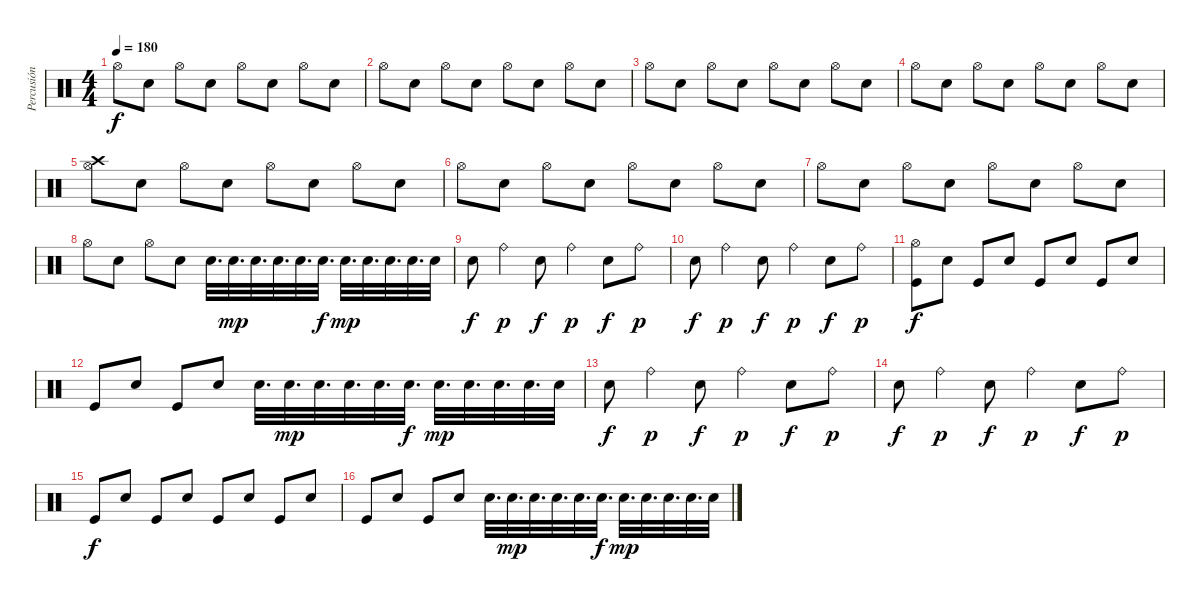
\track ("Percusión" "Percusión") {instrument percussion}
\staff {score}
\articulation defaults
\ts (4 4)
\tempo 180
\clef neutral
\ks c "Hi-Hat (open)".8{dy f} "Snare (hit) 2".8 "Hi-Hat (open)".8 "Snare (hit) 2".8 "Hi-Hat (open)".8 "Snare (hit) 2".8 "Hi-Hat (open)".8 "Snare (hit) 2".8
|
"Hi-Hat (open)".8 "Snare (hit) 2".8 "Hi-Hat (open)".8 "Snare (hit) 2".8 "Hi-Hat (open)".8 "Snare (hit) 2".8 "Hi-Hat (open)".8 "Snare (hit) 2".8 |
"Hi-Hat (open)".8 "Snare (hit) 2".8 "Hi-Hat (open)".8 "Snare (hit) 2".8 "Hi-Hat (open)".8 "Snare (hit) 2".8 "Hi-Hat (open)".8 "Snare (hit) 2".8 |
"Hi-Hat (open)".8 "Snare (hit) 2".8 "Hi-Hat (open)".8 "Snare (hit) 2".8 "Hi-Hat (open)".8 "Snare (hit) 2".8 "Hi-Hat (open)".8 "Snare (hit) 2".8 |
("Hi-Hat (open)" "Crash high (hit)").8 "Snare (hit) 2".8 "Hi-Hat (open)".8 "Snare (hit) 2".8 "Hi-Hat (open)".8 "Snare (hit) 2".8 "Hi-Hat (open)".8 "Snare (hit) 2".8 |
"Hi-Hat (open)".8 "Snare (hit) 2".8 "Hi-Hat (open)".8 "Snare (hit) 2".8 "Hi-Hat (open)".8 "Snare (hit) 2".8 "Hi-Hat (open)".8 "Snare (hit) 2".8 |
"Hi-Hat (open)".8 "Snare (hit) 2".8 "Hi-Hat (open)".8 "Snare (hit) 2".8 "Hi-Hat (open)".8 "Snare (hit) 2".8 "Hi-Hat (open)".8 "Snare (hit) 2".8 |
"Hi-Hat (open)".8 "Snare (hit) 2".8 "Hi-Hat (open)".8 "Snare (hit) 2".8 "Snare (hit) 2".32{d} "Snare (hit) 2".32{d dy mp} "Snare (hit) 2".32{d} "Snare (hit) 2".32{d} "Snare (hit) 2".32{d} "Snare (hit) 2".32{d dy f} "Snare (hit) 2".32{d dy mp} "Snare (hit) 2".32{d} "Snare (hit) 2".32{d} "Snare (hit) 2".32{d} "Snare (hit) 2".32 |
"Snare (hit) 2".8{dy f} "Ride (bell)".4{dy p} "Snare (hit) 2".8{dy f} "Ride (bell)".4{dy p} "Snare (hit) 2".8{dy f} "Ride (bell)".8{dy p} |
"Snare (hit) 2".8{dy f} "Ride (bell)".4{dy p} "Snare (hit) 2".8{dy f} "Ride (bell)".4{dy p} "Snare (hit) 2".8{dy f} "Ride (bell)".8{dy p} |
("Kick (hit)" "Hi-Hat (open)").8{dy f} "Snare (hit) 2".8 "Kick (hit)".8 "Snare (hit) 2".8 "Kick (hit)".8 "Snare (hit) 2".8 "Kick (hit)".8 "Snare (hit) 2".8 |
"Kick (hit)".8 "Snare (hit) 2".8 "Kick (hit)".8 "Snare (hit) 2".8 "Snare (hit) 2".32{d} "Snare (hit) 2".32{d dy mp} "Snare (hit) 2".32{d} "Snare (hit) 2".32{d} "Snare (hit) 2".32{d} "Snare (hit) 2".32{d dy f} "Snare (hit) 2".32{d dy mp} "Snare (hit) 2".32{d} "Snare (hit) 2".32{d} "Snare (hit) 2".32{d} "Snare (hit) 2".32 |
"Snare (hit) 2".8{dy f} "Ride (bell)".4{dy p} "Snare (hit) 2".8{dy f} "Ride (bell)".4{dy p} "Snare (hit) 2".8{dy f} "Ride (bell)".8{dy p} |
"Snare (hit) 2".8{dy f} "Ride (bell)".4{dy p} "Snare (hit) 2".8{dy f} "Ride (bell)".4{dy p} "Snare (hit) 2".8{dy f} "Ride (bell)".8{dy p} |
"Kick (hit)".8{dy f} "Snare (hit) 2".8 "Kick (hit)".8 "Snare (hit) 2".8 "Kick (hit)".8 "Snare (hit) 2".8 "Kick (hit)".8 "Snare (hit) 2".8 |
"Kick (hit)".8 "Snare (hit) 2".8 "Kick (hit)".8 "Snare (hit) 2".8 "Snare (hit) 2".32{d} "Snare (hit) 2".32{d dy mp} "Snare (hit) 2".32{d} "Snare (hit) 2".32{d} "Snare (hit) 2".32{d} "Snare (hit) 2".32{d dy f} "Snare (hit) 2".32{d dy mp} "Snare (hit) 2".32{d} "Snare (hit) 2".32{d} "Snare (hit) 2".32{d} "Snare (hit) 2".32
